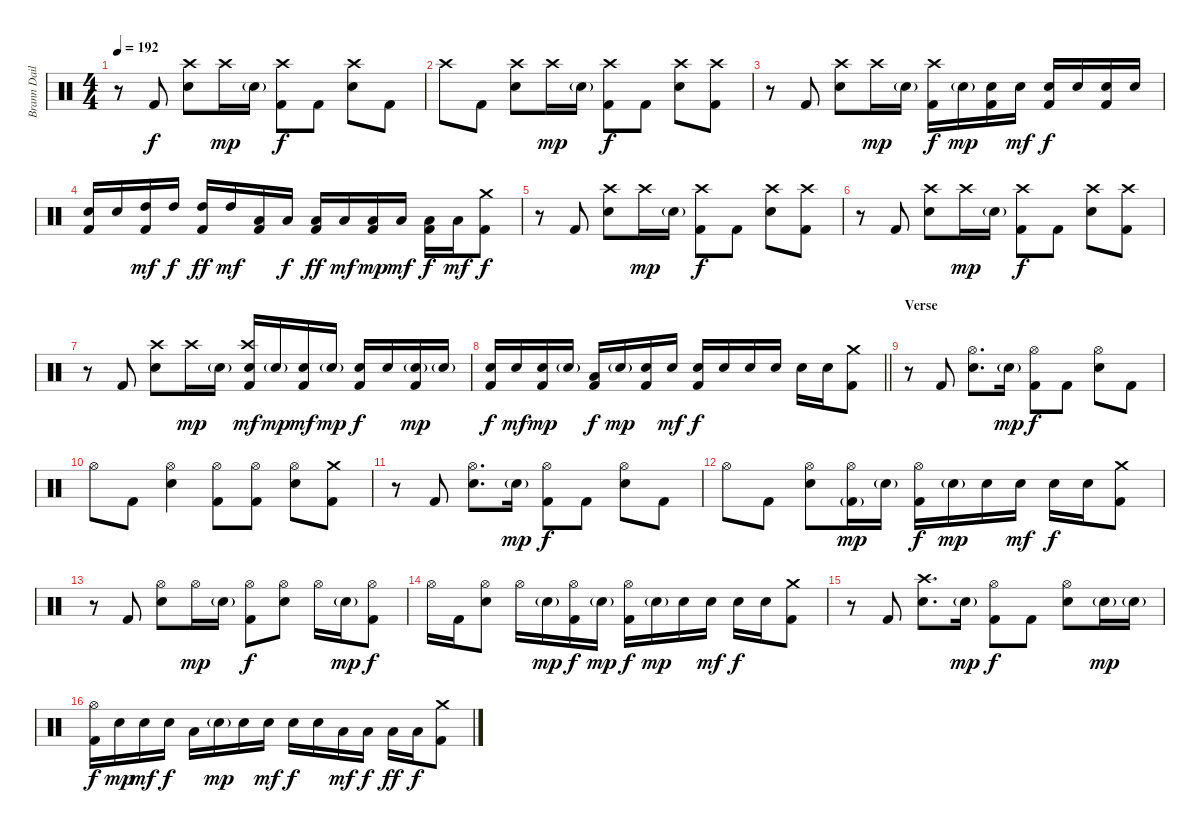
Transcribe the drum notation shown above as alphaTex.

\track ("Brann Dailor - Drums" "Brann Dail") {instrument percussion}
\staff {score}
\articulation defaults
\ts (4 4)
\tempo 192
\clef neutral
\ks c
r.8{dy f} "Kick (hit) 2".8 ("Crash high (hit)" "Electric Snare (hit)").8 "Crash high (hit)".16{dy mp} "Electric Snare (hit)"{g}.16 ("Crash high (hit)" "Kick (hit) 2").8{dy f} "Kick (hit) 2".8 ("Crash high (hit)" "Electric Snare (hit)").8 "Kick (hit) 2".8 |
"Crash high (hit)".8 "Kick (hit) 2".8 ("Crash high (hit)" "Electric Snare (hit)").8 "Crash high (hit)".16{dy mp} "Electric Snare (hit)"{g}.16 ("Crash high (hit)" "Kick (hit) 2").8{dy f} "Kick (hit) 2".8 ("Crash high (hit)" "Electric Snare (hit)").8 ("Crash high (hit)" "Kick (hit) 2").8 |
r.8 "Kick (hit) 2".8 ("Crash high (hit)" "Electric Snare (hit)").8 "Crash high (hit)".16{dy mp} "Electric Snare (hit)"{g}.16 ("Crash high (hit)" "Kick (hit) 2").16{dy f} "Electric Snare (hit)"{g}.16{dy mp} ("Electric Snare (hit)" "Kick (hit) 2").16 "Electric Snare (hit)".16{dy mf} ("Electric Snare (hit)" "Kick (hit) 2").16{dy f} "Electric Snare (hit)".16 ("Electric Snare (hit)" "Kick (hit) 2").16 "Electric Snare (hit)".16 |
("Electric Snare (hit)" "Kick (hit) 2").16 "Electric Snare (hit)".16 ("High Tom (hit)" "Kick (hit) 2").16{dy mf} "High Tom (hit)".16{dy f} ("High Tom (hit)" "Kick (hit) 2").16{dy ff} "High Tom (hit)".16{dy mf} ("Low Tom (hit)" "Kick (hit) 2").16 "Low Tom (hit)".16{dy f} ("Low Tom (hit)" "Kick (hit) 2").16{dy ff} "Low Tom (hit)".16{dy mf} ("Low Floor Tom (hit)" "Kick (hit) 2").16{dy mp} "Low Floor Tom (hit)".16{dy mf} ("Low Floor Tom (hit)" "Kick (hit) 2").16{dy f} "Low Floor Tom (hit)".16{dy mf} ("Crash medium (hit)" "Kick (hit) 2").8{dy f} |
r.8 "Kick (hit) 2".8 ("Crash high (hit)" "Electric Snare (hit)").8 "Crash high (hit)".16{dy mp} "Electric Snare (hit)"{g}.16 ("Crash high (hit)" "Kick (hit) 2").8{dy f} "Kick (hit) 2".8 ("Crash high (hit)" "Electric Snare (hit)").8 ("Crash high (hit)" "Kick (hit) 2").8 |
r.8 "Kick (hit) 2".8 ("Crash high (hit)" "Electric Snare (hit)").8 "Crash high (hit)".16{dy mp} "Electric Snare (hit)"{g}.16 ("Crash high (hit)" "Kick (hit) 2").8{dy f} "Kick (hit) 2".8 ("Crash high (hit)" "Electric Snare (hit)").8 ("Crash high (hit)" "Kick (hit) 2").8 |
r.8 "Kick (hit) 2".8 ("Crash high (hit)" "Electric Snare (hit)").8 "Crash high (hit)".16{dy mp} "Electric Snare (hit)"{g}.16 ("Crash high (hit)" "Electric Snare (hit)" "Kick (hit) 2").16{dy mf} "Electric Snare (hit)"{g}.16{dy mp} ("Electric Snare (hit)" "Kick (hit) 2").16{dy mf} "Electric Snare (hit)"{g}.16{dy mp} ("Electric Snare (hit)" "Kick (hit) 2").16{dy f} "Electric Snare (hit)".16 ("Electric Snare (hit)"{g} "Kick (hit) 2").16{dy mp} "Electric Snare (hit)"{g}.16 |
\barLineRight lightlight
("Electric Snare (hit)" "Kick (hit) 2").16{dy f} "Electric Snare (hit)".16{dy mf} ("Electric Snare (hit)" "Kick (hit) 2").16{dy mp} "Electric Snare (hit)"{g}.16 ("Low Tom (hit)" "Kick (hit) 2").16{dy f} "Electric Snare (hit)"{g}.16{dy mp} ("Electric Snare (hit)" "Kick (hit) 2").16 "Electric Snare (hit)".16{dy mf} ("Electric Snare (hit)" "Kick (hit) 2").16{dy f} "Electric Snare (hit)".16 "Electric Snare (hit)".16 "Electric Snare (hit)".16 "Electric Snare (hit)".16 "Electric Snare (hit)".16 ("Crash medium (hit)" "Kick (hit) 2").8 |
\section ("" "Verse")
r.8 "Kick (hit) 2".8 ("Hi-Hat (open)" "Electric Snare (hit)").8{d} "Electric Snare (hit)"{g}.16{dy mp} ("Hi-Hat (open)" "Kick (hit) 2").8{dy f} "Kick (hit) 2".8 ("Hi-Hat (open)" "Electric Snare (hit)").8 "Kick (hit) 2".8 |
"Hi-Hat (open)".8 "Kick (hit) 2".8 ("Hi-Hat (open)" "Electric Snare (hit)").4 ("Hi-Hat (open)" "Kick (hit) 2").8 ("Hi-Hat (open)" "Kick (hit) 2").8 ("Hi-Hat (open)" "Electric Snare (hit)").8 ("Crash medium (hit)" "Kick (hit) 2").8 |
r.8 "Kick (hit) 2".8 ("Hi-Hat (open)" "Electric Snare (hit)").8{d} "Electric Snare (hit)"{g}.16{dy mp} ("Hi-Hat (open)" "Kick (hit) 2").8{dy f} "Kick (hit) 2".8 ("Hi-Hat (open)" "Electric Snare (hit)").8 "Kick (hit) 2".8 |
"Hi-Hat (open)".8 "Kick (hit) 2".8 ("Hi-Hat (open)" "Electric Snare (hit)").8 ("Hi-Hat (open)" "Kick (hit) 2"{g}).16{dy mp} "Electric Snare (hit)"{g}.16 ("Hi-Hat (open)" "Kick (hit) 2").16{dy f} "Electric Snare (hit)"{g}.16{dy mp} "Electric Snare (hit)".16 "Electric Snare (hit)".16{dy mf} "Electric Snare (hit)".16{dy f} "Electric Snare (hit)".16 ("Crash medium (hit)" "Kick (hit) 2").8 |
r.8 "Kick (hit) 2".8 ("Hi-Hat (open)" "Electric Snare (hit)").8 "Hi-Hat (open)".16{dy mp} "Electric Snare (hit)"{g}.16 ("Hi-Hat (open)" "Kick (hit) 2").8{dy f} ("Hi-Hat (open)" "Electric Snare (hit)").8 "Hi-Hat (open)".16 "Electric Snare (hit)"{g}.16{dy mp} ("Hi-Hat (open)" "Kick (hit) 2").8{dy f} |
"Hi-Hat (open)".16 "Kick (hit) 2".16 ("Hi-Hat (open)" "Electric Snare (hit)").8 "Hi-Hat (open)".16 "Electric Snare (hit)"{g}.16{dy mp} ("Hi-Hat (open)" "Kick (hit) 2").16{dy f} "Electric Snare (hit)"{g}.16{dy mp} ("Hi-Hat (open)" "Kick (hit) 2").16{dy f} "Electric Snare (hit)"{g}.16{dy mp} "Electric Snare (hit)".16 "Electric Snare (hit)".16{dy mf} "Electric Snare (hit)".16{dy f} "Electric Snare (hit)".16 ("Crash medium (hit)" "Kick (hit) 2").8 |
r.8 "Kick (hit) 2".8 ("Crash high (hit)" "Electric Snare (hit)").8{d} "Electric Snare (hit)"{g}.16{dy mp} ("Hi-Hat (open)" "Kick (hit) 2").8{dy f} "Kick (hit) 2".8 ("Hi-Hat (open)" "Electric Snare (hit)").8 "Electric Snare (hit)"{g}.16{dy mp} "Electric Snare (hit)"{g}.16 |
("Hi-Hat (open)" "Kick (hit) 2").16{dy f} "Electric Snare (hit)".16{dy mp} "Electric Snare (hit)".16{dy mf} "Electric Snare (hit)".16{dy f} "Low Tom (hit)".16 "Electric Snare (hit)"{g}.16{dy mp} "Electric Snare (hit)".16 "Electric Snare (hit)".16{dy mf} "Electric Snare (hit)".16{dy f} "Electric Snare (hit)".16 "Low Tom (hit)".16{dy mf} "Low Tom (hit)".16{dy f} "Low Tom (hit)".16{dy ff} "Low Tom (hit)".16{dy f} ("Crash medium (hit)" "Kick (hit) 2").8
